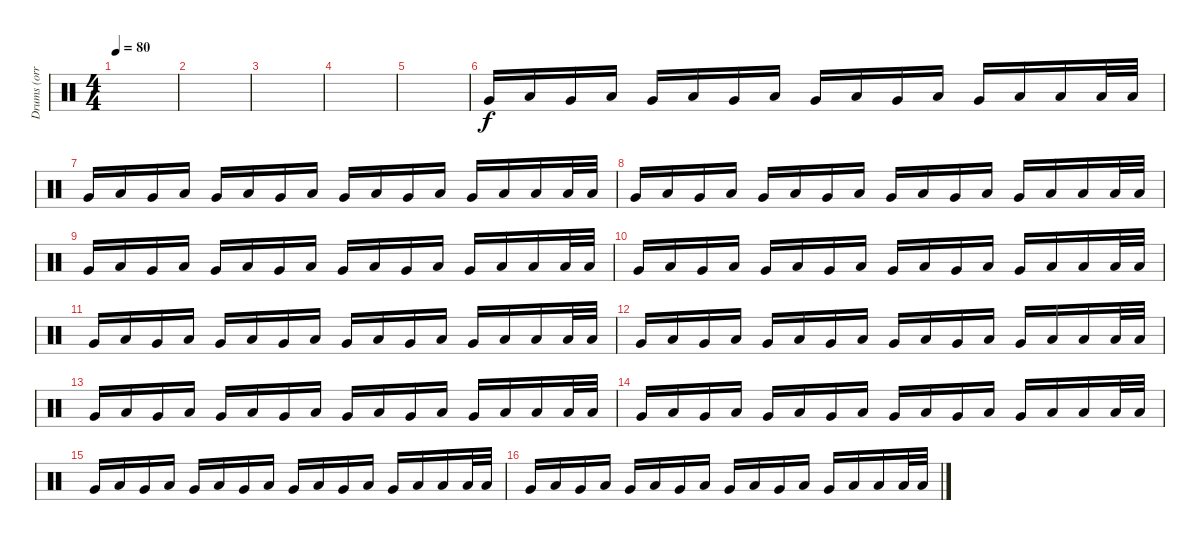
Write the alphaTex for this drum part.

\track ("Drums (orri páll dırason)" "Drums (orr") {instrument percussion}
\staff {score}
\articulation defaults
\ts (4 4)
\tempo 80
\clef neutral
\ks c
|
|
|
|
|
"Very Low Tom (hit)".16{volume 0} "Low Floor Tom (hit)".16{volume 4} "Very Low Tom (hit)".16 "Low Floor Tom (hit)".16 "Very Low Tom (hit)".16 "Low Floor Tom (hit)".16 "Very Low Tom (hit)".16 "Low Floor Tom (hit)".16 "Very Low Tom (hit)".16 "Low Floor Tom (hit)".16 "Very Low Tom (hit)".16 "Low Floor Tom (hit)".16 "Very Low Tom (hit)".16 "Low Floor Tom (hit)".16 "Low Tom (hit)".16 "Low Tom (hit)".32 "Low Tom (hit)".32 |
"Very Low Tom (hit)".16 "Low Floor Tom (hit)".16 "Very Low Tom (hit)".16 "Low Floor Tom (hit)".16 "Very Low Tom (hit)".16 "Low Floor Tom (hit)".16 "Very Low Tom (hit)".16 "Low Floor Tom (hit)".16 "Very Low Tom (hit)".16 "Low Floor Tom (hit)".16 "Very Low Tom (hit)".16 "Low Floor Tom (hit)".16 "Very Low Tom (hit)".16 "Low Floor Tom (hit)".16 "Low Tom (hit)".16 "Low Tom (hit)".32 "Low Tom (hit)".32 |
"Very Low Tom (hit)".16 "Low Floor Tom (hit)".16 "Very Low Tom (hit)".16 "Low Floor Tom (hit)".16 "Very Low Tom (hit)".16 "Low Floor Tom (hit)".16 "Very Low Tom (hit)".16 "Low Floor Tom (hit)".16 "Very Low Tom (hit)".16 "Low Floor Tom (hit)".16 "Very Low Tom (hit)".16 "Low Floor Tom (hit)".16 "Very Low Tom (hit)".16 "Low Floor Tom (hit)".16 "Low Tom (hit)".16 "Low Tom (hit)".32 "Low Tom (hit)".32 |
"Very Low Tom (hit)".16 "Low Floor Tom (hit)".16 "Very Low Tom (hit)".16 "Low Floor Tom (hit)".16 "Very Low Tom (hit)".16 "Low Floor Tom (hit)".16 "Very Low Tom (hit)".16 "Low Floor Tom (hit)".16 "Very Low Tom (hit)".16 "Low Floor Tom (hit)".16 "Very Low Tom (hit)".16 "Low Floor Tom (hit)".16 "Very Low Tom (hit)".16 "Low Floor Tom (hit)".16 "Low Tom (hit)".16 "Low Tom (hit)".32 "Low Tom (hit)".32 |
"Very Low Tom (hit)".16 "Low Floor Tom (hit)".16 "Very Low Tom (hit)".16{volume 8} "Low Floor Tom (hit)".16 "Very Low Tom (hit)".16 "Low Floor Tom (hit)".16 "Very Low Tom (hit)".16 "Low Floor Tom (hit)".16 "Very Low Tom (hit)".16 "Low Floor Tom (hit)".16 "Very Low Tom (hit)".16 "Low Floor Tom (hit)".16 "Very Low Tom (hit)".16 "Low Floor Tom (hit)".16 "Low Tom (hit)".16 "Low Tom (hit)".32 "Low Tom (hit)".32 |
"Very Low Tom (hit)".16 "Low Floor Tom (hit)".16 "Very Low Tom (hit)".16 "Low Floor Tom (hit)".16 "Very Low Tom (hit)".16 "Low Floor Tom (hit)".16 "Very Low Tom (hit)".16 "Low Floor Tom (hit)".16 "Very Low Tom (hit)".16 "Low Floor Tom (hit)".16 "Very Low Tom (hit)".16 "Low Floor Tom (hit)".16 "Very Low Tom (hit)".16 "Low Floor Tom (hit)".16 "Low Tom (hit)".16 "Low Tom (hit)".32 "Low Tom (hit)".32 |
"Very Low Tom (hit)".16 "Low Floor Tom (hit)".16 "Very Low Tom (hit)".16 "Low Floor Tom (hit)".16 "Very Low Tom (hit)".16 "Low Floor Tom (hit)".16 "Very Low Tom (hit)".16 "Low Floor Tom (hit)".16 "Very Low Tom (hit)".16 "Low Floor Tom (hit)".16 "Very Low Tom (hit)".16 "Low Floor Tom (hit)".16 "Very Low Tom (hit)".16 "Low Floor Tom (hit)".16 "Low Tom (hit)".16 "Low Tom (hit)".32 "Low Tom (hit)".32 |
"Very Low Tom (hit)".16 "Low Floor Tom (hit)".16 "Very Low Tom (hit)".16 "Low Floor Tom (hit)".16 "Very Low Tom (hit)".16 "Low Floor Tom (hit)".16 "Very Low Tom (hit)".16 "Low Floor Tom (hit)".16 "Very Low Tom (hit)".16 "Low Floor Tom (hit)".16 "Very Low Tom (hit)".16 "Low Floor Tom (hit)".16 "Very Low Tom (hit)".16 "Low Floor Tom (hit)".16 "Low Tom (hit)".16 "Low Tom (hit)".32 "Low Tom (hit)".32 |
"Very Low Tom (hit)".16 "Low Floor Tom (hit)".16 "Very Low Tom (hit)".16 "Low Floor Tom (hit)".16{volume 12} "Very Low Tom (hit)".16 "Low Floor Tom (hit)".16 "Very Low Tom (hit)".16 "Low Floor Tom (hit)".16 "Very Low Tom (hit)".16 "Low Floor Tom (hit)".16 "Very Low Tom (hit)".16 "Low Floor Tom (hit)".16 "Very Low Tom (hit)".16 "Low Floor Tom (hit)".16 "Low Tom (hit)".16 "Low Tom (hit)".32 "Low Tom (hit)".32 |
"Very Low Tom (hit)".16 "Low Floor Tom (hit)".16 "Very Low Tom (hit)".16 "Low Floor Tom (hit)".16 "Very Low Tom (hit)".16 "Low Floor Tom (hit)".16 "Very Low Tom (hit)".16 "Low Floor Tom (hit)".16 "Very Low Tom (hit)".16 "Low Floor Tom (hit)".16 "Very Low Tom (hit)".16 "Low Floor Tom (hit)".16 "Very Low Tom (hit)".16 "Low Floor Tom (hit)".16 "Low Tom (hit)".16 "Low Tom (hit)".32 "Low Tom (hit)".32 |
"Very Low Tom (hit)".16 "Low Floor Tom (hit)".16 "Very Low Tom (hit)".16 "Low Floor Tom (hit)".16 "Very Low Tom (hit)".16 "Low Floor Tom (hit)".16 "Very Low Tom (hit)".16 "Low Floor Tom (hit)".16 "Very Low Tom (hit)".16 "Low Floor Tom (hit)".16 "Very Low Tom (hit)".16 "Low Floor Tom (hit)".16 "Very Low Tom (hit)".16 "Low Floor Tom (hit)".16 "Low Tom (hit)".16 "Low Tom (hit)".32 "Low Tom (hit)".32
